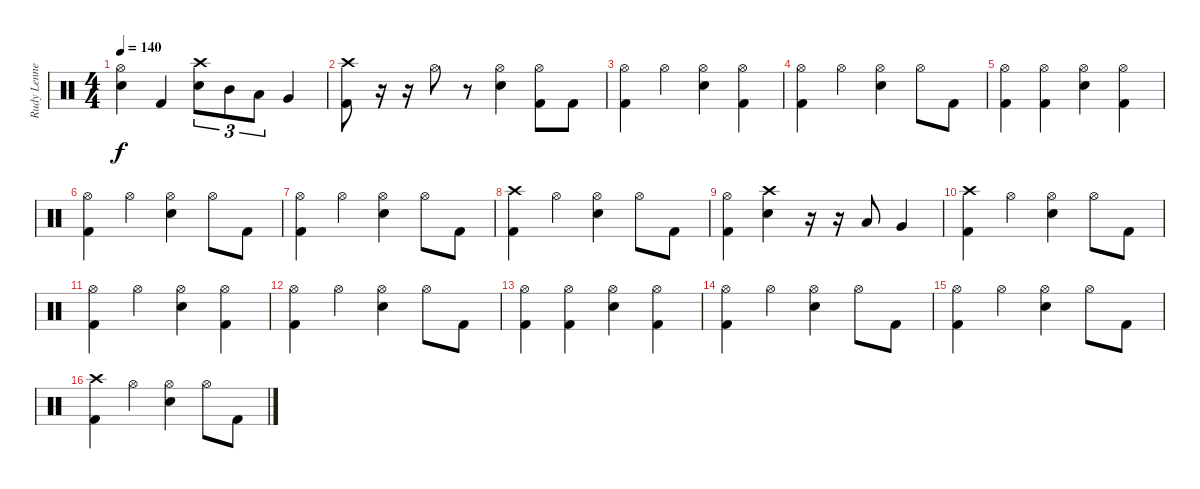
\track ("Rudy Lenners" "Rudy Lenne") {instrument percussion}
\staff {score}
\articulation defaults
\ts (4 4)
\tempo 140
\clef neutral
\ks c
("Hi-Hat (open)" "Snare (hit) 2").4{dy f} "Kick (hit) 2".4 ("Crash high (hit)" "Snare (hit) 2").8{tu (3 2)} "Mid Tom (hit)".8{tu (3 2)} "Low Tom (hit)".8{tu (3 2)} "Very Low Tom (hit)".4 |
("Kick (hit) 2" "Crash high (hit)").8 r.16 r.16 "Hi-Hat (open)".8 r.8 ("Hi-Hat (open)" "Snare (hit) 2").4 ("Hi-Hat (open)" "Kick (hit) 2").8 "Kick (hit) 2".8 |
("Hi-Hat (open)" "Kick (hit) 2").4 "Hi-Hat (open)".4 ("Hi-Hat (open)" "Snare (hit) 2").4 ("Hi-Hat (open)" "Kick (hit) 2").4 |
("Hi-Hat (open)" "Kick (hit) 2").4 "Hi-Hat (open)".4 ("Hi-Hat (open)" "Snare (hit) 2").4 "Hi-Hat (open)".8 "Kick (hit) 2".8 |
("Hi-Hat (open)" "Kick (hit) 2").4 ("Hi-Hat (open)" "Kick (hit) 2").4 ("Hi-Hat (open)" "Snare (hit) 2").4 ("Hi-Hat (open)" "Kick (hit) 2").4 |
("Hi-Hat (open)" "Kick (hit) 2").4 "Hi-Hat (open)".4 ("Hi-Hat (open)" "Snare (hit) 2").4 "Hi-Hat (open)".8 "Kick (hit) 2".8 |
("Hi-Hat (open)" "Kick (hit) 2").4 "Hi-Hat (open)".4 ("Hi-Hat (open)" "Snare (hit) 2").4 "Hi-Hat (open)".8 "Kick (hit) 2".8 |
("Crash high (hit)" "Kick (hit) 2").4 "Hi-Hat (open)".4 ("Hi-Hat (open)" "Snare (hit) 2").4 "Hi-Hat (open)".8 "Kick (hit) 2".8 |
("Hi-Hat (open)" "Kick (hit) 2").4 ("Crash high (hit)" "Snare (hit) 2").4 r.16 r.16 "Low Tom (hit)".8 "Very Low Tom (hit)".4 |
("Crash high (hit)" "Kick (hit) 2").4 "Hi-Hat (open)".4 ("Hi-Hat (open)" "Snare (hit) 2").4 "Hi-Hat (open)".8 "Kick (hit) 2".8 |
("Hi-Hat (open)" "Kick (hit) 2").4 "Hi-Hat (open)".4 ("Hi-Hat (open)" "Snare (hit) 2").4 ("Hi-Hat (open)" "Kick (hit) 2").4 |
("Hi-Hat (open)" "Kick (hit) 2").4 "Hi-Hat (open)".4 ("Hi-Hat (open)" "Snare (hit) 2").4 "Hi-Hat (open)".8 "Kick (hit) 2".8 |
("Hi-Hat (open)" "Kick (hit) 2").4 ("Hi-Hat (open)" "Kick (hit) 2").4 ("Hi-Hat (open)" "Snare (hit) 2").4 ("Hi-Hat (open)" "Kick (hit) 2").4 |
("Hi-Hat (open)" "Kick (hit) 2").4 "Hi-Hat (open)".4 ("Hi-Hat (open)" "Snare (hit) 2").4 "Hi-Hat (open)".8 "Kick (hit) 2".8 |
("Hi-Hat (open)" "Kick (hit) 2").4 "Hi-Hat (open)".4 ("Hi-Hat (open)" "Snare (hit) 2").4 "Hi-Hat (open)".8 "Kick (hit) 2".8 |
("Crash high (hit)" "Kick (hit) 2").4 "Hi-Hat (open)".4 ("Hi-Hat (open)" "Snare (hit) 2").4 "Hi-Hat (open)".8 "Kick (hit) 2".8
